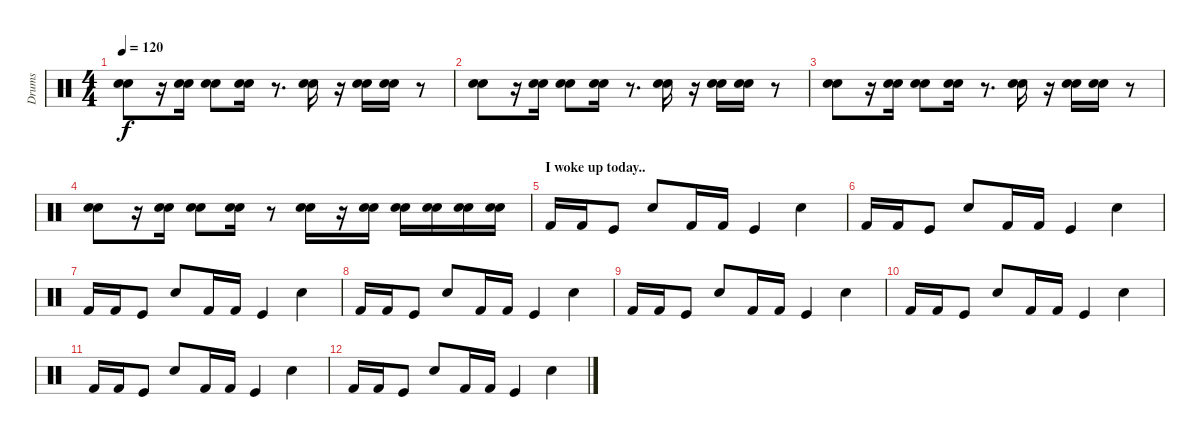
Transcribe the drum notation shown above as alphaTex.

\track ("Drums" "Drums") {instrument percussion}
\staff {score}
\articulation defaults
\ts (4 4)
\tempo 120
\clef neutral
\ks c
("Snare (hit) 2" "Electric Snare (hit)").8{dy f volume 16} r.16 ("Snare (hit) 2" "Electric Snare (hit)").16 ("Snare (hit) 2" "Electric Snare (hit)").8 ("Snare (hit) 2" "Electric Snare (hit)").16 r.8{d} ("Snare (hit) 2" "Electric Snare (hit)").16 r.16 ("Snare (hit) 2" "Electric Snare (hit)").16 ("Snare (hit) 2" "Electric Snare (hit)").16 r.8 |
("Snare (hit) 2" "Electric Snare (hit)").8 r.16 ("Snare (hit) 2" "Electric Snare (hit)").16 ("Snare (hit) 2" "Electric Snare (hit)").8 ("Snare (hit) 2" "Electric Snare (hit)").16 r.8{d} ("Snare (hit) 2" "Electric Snare (hit)").16 r.16 ("Snare (hit) 2" "Electric Snare (hit)").16 ("Snare (hit) 2" "Electric Snare (hit)").16 r.8 |
("Snare (hit) 2" "Electric Snare (hit)").8 r.16 ("Snare (hit) 2" "Electric Snare (hit)").16 ("Snare (hit) 2" "Electric Snare (hit)").8 ("Snare (hit) 2" "Electric Snare (hit)").16 r.8{d} ("Snare (hit) 2" "Electric Snare (hit)").16 r.16 ("Snare (hit) 2" "Electric Snare (hit)").16 ("Snare (hit) 2" "Electric Snare (hit)").16 r.8 |
("Snare (hit) 2" "Electric Snare (hit)").8 r.16 ("Snare (hit) 2" "Electric Snare (hit)").16 ("Snare (hit) 2" "Electric Snare (hit)").8 ("Snare (hit) 2" "Electric Snare (hit)").16 r.8 ("Snare (hit) 2" "Electric Snare (hit)").16 r.16 ("Snare (hit) 2" "Electric Snare (hit)").16 ("Snare (hit) 2" "Electric Snare (hit)").16 ("Snare (hit) 2" "Electric Snare (hit)").16 ("Snare (hit) 2" "Electric Snare (hit)").16 ("Snare (hit) 2" "Electric Snare (hit)").16 |
\section ("" "I woke up today..")
"Kick (hit) 2".16 "Kick (hit) 2".16 "Kick (hit)".8 "Electric Snare (hit)".8 "Kick (hit) 2".16 "Kick (hit) 2".16 "Kick (hit)".4 "Electric Snare (hit)".4 |
"Kick (hit) 2".16 "Kick (hit) 2".16 "Kick (hit)".8 "Electric Snare (hit)".8 "Kick (hit) 2".16 "Kick (hit) 2".16 "Kick (hit)".4 "Electric Snare (hit)".4 |
"Kick (hit) 2".16 "Kick (hit) 2".16 "Kick (hit)".8 "Electric Snare (hit)".8 "Kick (hit) 2".16 "Kick (hit) 2".16 "Kick (hit)".4 "Electric Snare (hit)".4 |
"Kick (hit) 2".16 "Kick (hit) 2".16 "Kick (hit)".8 "Electric Snare (hit)".8 "Kick (hit) 2".16 "Kick (hit) 2".16 "Kick (hit)".4 "Electric Snare (hit)".4 |
"Kick (hit) 2".16 "Kick (hit) 2".16 "Kick (hit)".8 "Electric Snare (hit)".8 "Kick (hit) 2".16 "Kick (hit) 2".16 "Kick (hit)".4 "Electric Snare (hit)".4 |
"Kick (hit) 2".16 "Kick (hit) 2".16 "Kick (hit)".8 "Electric Snare (hit)".8 "Kick (hit) 2".16 "Kick (hit) 2".16 "Kick (hit)".4 "Electric Snare (hit)".4 |
"Kick (hit) 2".16 "Kick (hit) 2".16 "Kick (hit)".8 "Electric Snare (hit)".8 "Kick (hit) 2".16 "Kick (hit) 2".16 "Kick (hit)".4 "Electric Snare (hit)".4 |
"Kick (hit) 2".16 "Kick (hit) 2".16 "Kick (hit)".8 "Electric Snare (hit)".8 "Kick (hit) 2".16 "Kick (hit) 2".16 "Kick (hit)".4 "Electric Snare (hit)".4
